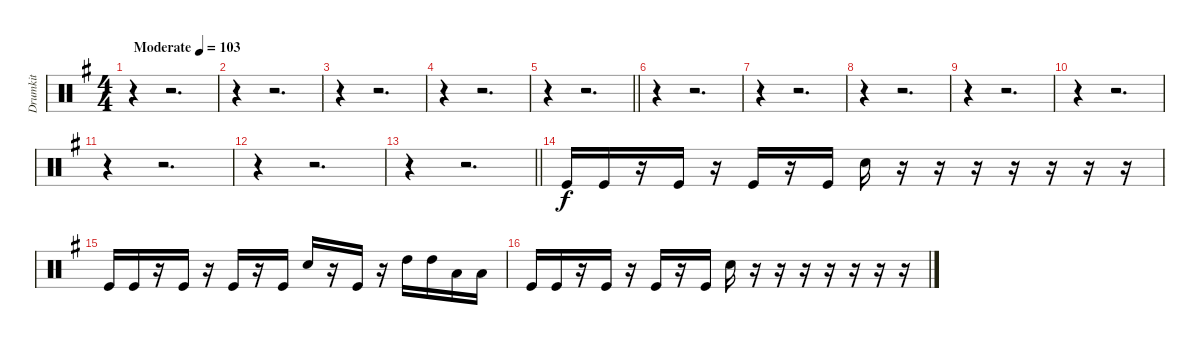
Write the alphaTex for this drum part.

\track ("Drumkit" "Drumkit") {instrument percussion}
\staff {score}
\articulation defaults
\ts (4 4)
\tempo (103 "Moderate")
\clef neutral
\ks eminor
r.4{dy f} r.2{d} |
r.4 r.2{d} |
r.4 r.2{d} |
r.4 r.2{d} |
\barLineRight lightlight
r.4 r.2{d} |
r.4 r.2{d} |
r.4 r.2{d} |
r.4 r.2{d} |
r.4 r.2{d} |
r.4 r.2{d} |
r.4 r.2{d} |
r.4 r.2{d} |
\barLineRight lightlight
r.4 r.2{d} |
"Kick (hit)".16 "Kick (hit)".16 r.16 "Kick (hit)".16 r.16 "Kick (hit)".16 r.16 "Kick (hit)".16 "Snare (hit) 2".16 r.16 r.16 r.16 r.16 r.16 r.16 r.16 |
"Kick (hit)".16 "Kick (hit)".16 r.16 "Kick (hit)".16 r.16 "Kick (hit)".16 r.16 "Kick (hit)".16 "Snare (hit) 2".16 r.16 "Kick (hit)".16 r.16 "High Tom (hit)".16 "High Tom (hit)".16 "Low Tom (hit)".16 "Low Tom (hit)".16 |
"Kick (hit)".16 "Kick (hit)".16 r.16 "Kick (hit)".16 r.16 "Kick (hit)".16 r.16 "Kick (hit)".16 "Snare (hit) 2".16 r.16 r.16 r.16 r.16 r.16 r.16 r.16
